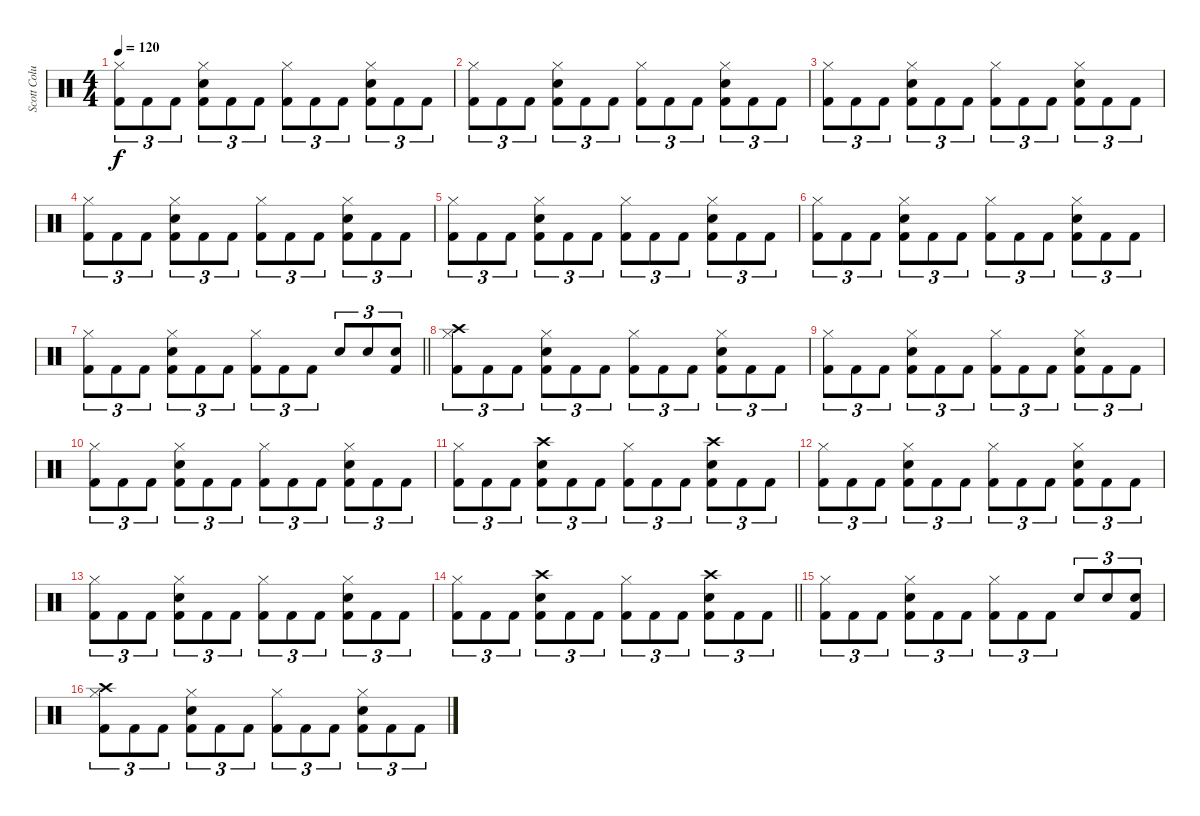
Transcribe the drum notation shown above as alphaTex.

\track ("Scott Columbus" "Scott Colu") {instrument percussion}
\staff {score}
\articulation defaults
\ts (4 4)
\tempo 120
\clef neutral
\ks c
("Hi-Hat (closed)" "Kick (hit) 2").8{tu (3 2) dy f} "Kick (hit) 2".8{tu (3 2)} "Kick (hit) 2".8{tu (3 2)} ("Hi-Hat (closed)" "Snare (hit) 2" "Kick (hit) 2").8{tu (3 2)} "Kick (hit) 2".8{tu (3 2)} "Kick (hit) 2".8{tu (3 2)} ("Hi-Hat (closed)" "Kick (hit) 2").8{tu (3 2)} "Kick (hit) 2".8{tu (3 2)} "Kick (hit) 2".8{tu (3 2)} ("Hi-Hat (closed)" "Snare (hit) 2" "Kick (hit) 2").8{tu (3 2)} "Kick (hit) 2".8{tu (3 2)} "Kick (hit) 2".8{tu (3 2)} |
("Hi-Hat (closed)" "Kick (hit) 2").8{tu (3 2)} "Kick (hit) 2".8{tu (3 2)} "Kick (hit) 2".8{tu (3 2)} ("Hi-Hat (closed)" "Snare (hit) 2" "Kick (hit) 2").8{tu (3 2)} "Kick (hit) 2".8{tu (3 2)} "Kick (hit) 2".8{tu (3 2)} ("Hi-Hat (closed)" "Kick (hit) 2").8{tu (3 2)} "Kick (hit) 2".8{tu (3 2)} "Kick (hit) 2".8{tu (3 2)} ("Hi-Hat (closed)" "Snare (hit) 2" "Kick (hit) 2").8{tu (3 2)} "Kick (hit) 2".8{tu (3 2)} "Kick (hit) 2".8{tu (3 2)} |
("Hi-Hat (closed)" "Kick (hit) 2").8{tu (3 2)} "Kick (hit) 2".8{tu (3 2)} "Kick (hit) 2".8{tu (3 2)} ("Hi-Hat (closed)" "Snare (hit) 2" "Kick (hit) 2").8{tu (3 2)} "Kick (hit) 2".8{tu (3 2)} "Kick (hit) 2".8{tu (3 2)} ("Hi-Hat (closed)" "Kick (hit) 2").8{tu (3 2)} "Kick (hit) 2".8{tu (3 2)} "Kick (hit) 2".8{tu (3 2)} ("Hi-Hat (closed)" "Snare (hit) 2" "Kick (hit) 2").8{tu (3 2)} "Kick (hit) 2".8{tu (3 2)} "Kick (hit) 2".8{tu (3 2)} |
("Hi-Hat (closed)" "Kick (hit) 2").8{tu (3 2)} "Kick (hit) 2".8{tu (3 2)} "Kick (hit) 2".8{tu (3 2)} ("Hi-Hat (closed)" "Snare (hit) 2" "Kick (hit) 2").8{tu (3 2)} "Kick (hit) 2".8{tu (3 2)} "Kick (hit) 2".8{tu (3 2)} ("Hi-Hat (closed)" "Kick (hit) 2").8{tu (3 2)} "Kick (hit) 2".8{tu (3 2)} "Kick (hit) 2".8{tu (3 2)} ("Hi-Hat (closed)" "Snare (hit) 2" "Kick (hit) 2").8{tu (3 2)} "Kick (hit) 2".8{tu (3 2)} "Kick (hit) 2".8{tu (3 2)} |
("Hi-Hat (closed)" "Kick (hit) 2").8{tu (3 2)} "Kick (hit) 2".8{tu (3 2)} "Kick (hit) 2".8{tu (3 2)} ("Hi-Hat (closed)" "Snare (hit) 2" "Kick (hit) 2").8{tu (3 2)} "Kick (hit) 2".8{tu (3 2)} "Kick (hit) 2".8{tu (3 2)} ("Hi-Hat (closed)" "Kick (hit) 2").8{tu (3 2)} "Kick (hit) 2".8{tu (3 2)} "Kick (hit) 2".8{tu (3 2)} ("Hi-Hat (closed)" "Snare (hit) 2" "Kick (hit) 2").8{tu (3 2)} "Kick (hit) 2".8{tu (3 2)} "Kick (hit) 2".8{tu (3 2)} |
("Hi-Hat (closed)" "Kick (hit) 2").8{tu (3 2)} "Kick (hit) 2".8{tu (3 2)} "Kick (hit) 2".8{tu (3 2)} ("Hi-Hat (closed)" "Snare (hit) 2" "Kick (hit) 2").8{tu (3 2)} "Kick (hit) 2".8{tu (3 2)} "Kick (hit) 2".8{tu (3 2)} ("Hi-Hat (closed)" "Kick (hit) 2").8{tu (3 2)} "Kick (hit) 2".8{tu (3 2)} "Kick (hit) 2".8{tu (3 2)} ("Hi-Hat (closed)" "Snare (hit) 2" "Kick (hit) 2").8{tu (3 2)} "Kick (hit) 2".8{tu (3 2)} "Kick (hit) 2".8{tu (3 2)} |
\barLineRight lightlight
("Hi-Hat (closed)" "Kick (hit) 2").8{tu (3 2)} "Kick (hit) 2".8{tu (3 2)} "Kick (hit) 2".8{tu (3 2)} ("Hi-Hat (closed)" "Snare (hit) 2" "Kick (hit) 2").8{tu (3 2)} "Kick (hit) 2".8{tu (3 2)} "Kick (hit) 2".8{tu (3 2)} ("Hi-Hat (closed)" "Kick (hit) 2").8{tu (3 2)} "Kick (hit) 2".8{tu (3 2)} "Kick (hit) 2".8{tu (3 2)} "Snare (hit) 2".8{tu (3 2)} "Snare (hit) 2".8{tu (3 2)} ("Snare (hit) 2" "Kick (hit) 2").8{tu (3 2)} |
("Crash high (hit)" "Hi-Hat (closed)" "Kick (hit) 2").8{tu (3 2)} "Kick (hit) 2".8{tu (3 2)} "Kick (hit) 2".8{tu (3 2)} ("Hi-Hat (closed)" "Snare (hit) 2" "Kick (hit) 2").8{tu (3 2)} "Kick (hit) 2".8{tu (3 2)} "Kick (hit) 2".8{tu (3 2)} ("Hi-Hat (closed)" "Kick (hit) 2").8{tu (3 2)} "Kick (hit) 2".8{tu (3 2)} "Kick (hit) 2".8{tu (3 2)} ("Hi-Hat (closed)" "Snare (hit) 2" "Kick (hit) 2").8{tu (3 2)} "Kick (hit) 2".8{tu (3 2)} "Kick (hit) 2".8{tu (3 2)} |
("Hi-Hat (closed)" "Kick (hit) 2").8{tu (3 2)} "Kick (hit) 2".8{tu (3 2)} "Kick (hit) 2".8{tu (3 2)} ("Hi-Hat (closed)" "Snare (hit) 2" "Kick (hit) 2").8{tu (3 2)} "Kick (hit) 2".8{tu (3 2)} "Kick (hit) 2".8{tu (3 2)} ("Hi-Hat (closed)" "Kick (hit) 2").8{tu (3 2)} "Kick (hit) 2".8{tu (3 2)} "Kick (hit) 2".8{tu (3 2)} ("Hi-Hat (closed)" "Snare (hit) 2" "Kick (hit) 2").8{tu (3 2)} "Kick (hit) 2".8{tu (3 2)} "Kick (hit) 2".8{tu (3 2)} |
("Hi-Hat (closed)" "Kick (hit) 2").8{tu (3 2)} "Kick (hit) 2".8{tu (3 2)} "Kick (hit) 2".8{tu (3 2)} ("Hi-Hat (closed)" "Snare (hit) 2" "Kick (hit) 2").8{tu (3 2)} "Kick (hit) 2".8{tu (3 2)} "Kick (hit) 2".8{tu (3 2)} ("Hi-Hat (closed)" "Kick (hit) 2").8{tu (3 2)} "Kick (hit) 2".8{tu (3 2)} "Kick (hit) 2".8{tu (3 2)} ("Hi-Hat (closed)" "Snare (hit) 2" "Kick (hit) 2").8{tu (3 2)} "Kick (hit) 2".8{tu (3 2)} "Kick (hit) 2".8{tu (3 2)} |
("Hi-Hat (closed)" "Kick (hit) 2").8{tu (3 2)} "Kick (hit) 2".8{tu (3 2)} "Kick (hit) 2".8{tu (3 2)} ("Crash high (hit)" "Snare (hit) 2" "Kick (hit) 2").8{tu (3 2)} "Kick (hit) 2".8{tu (3 2)} "Kick (hit) 2".8{tu (3 2)} ("Hi-Hat (closed)" "Kick (hit) 2").8{tu (3 2)} "Kick (hit) 2".8{tu (3 2)} "Kick (hit) 2".8{tu (3 2)} ("Crash high (hit)" "Snare (hit) 2" "Kick (hit) 2").8{tu (3 2)} "Kick (hit) 2".8{tu (3 2)} "Kick (hit) 2".8{tu (3 2)} |
("Hi-Hat (closed)" "Kick (hit) 2").8{tu (3 2)} "Kick (hit) 2".8{tu (3 2)} "Kick (hit) 2".8{tu (3 2)} ("Hi-Hat (closed)" "Snare (hit) 2" "Kick (hit) 2").8{tu (3 2)} "Kick (hit) 2".8{tu (3 2)} "Kick (hit) 2".8{tu (3 2)} ("Hi-Hat (closed)" "Kick (hit) 2").8{tu (3 2)} "Kick (hit) 2".8{tu (3 2)} "Kick (hit) 2".8{tu (3 2)} ("Hi-Hat (closed)" "Snare (hit) 2" "Kick (hit) 2").8{tu (3 2)} "Kick (hit) 2".8{tu (3 2)} "Kick (hit) 2".8{tu (3 2)} |
("Hi-Hat (closed)" "Kick (hit) 2").8{tu (3 2)} "Kick (hit) 2".8{tu (3 2)} "Kick (hit) 2".8{tu (3 2)} ("Hi-Hat (closed)" "Snare (hit) 2" "Kick (hit) 2").8{tu (3 2)} "Kick (hit) 2".8{tu (3 2)} "Kick (hit) 2".8{tu (3 2)} ("Hi-Hat (closed)" "Kick (hit) 2").8{tu (3 2)} "Kick (hit) 2".8{tu (3 2)} "Kick (hit) 2".8{tu (3 2)} ("Hi-Hat (closed)" "Snare (hit) 2" "Kick (hit) 2").8{tu (3 2)} "Kick (hit) 2".8{tu (3 2)} "Kick (hit) 2".8{tu (3 2)} |
\barLineRight lightlight
("Hi-Hat (closed)" "Kick (hit) 2").8{tu (3 2)} "Kick (hit) 2".8{tu (3 2)} "Kick (hit) 2".8{tu (3 2)} ("Crash high (hit)" "Snare (hit) 2" "Kick (hit) 2").8{tu (3 2)} "Kick (hit) 2".8{tu (3 2)} "Kick (hit) 2".8{tu (3 2)} ("Hi-Hat (closed)" "Kick (hit) 2").8{tu (3 2)} "Kick (hit) 2".8{tu (3 2)} "Kick (hit) 2".8{tu (3 2)} ("Crash high (hit)" "Snare (hit) 2" "Kick (hit) 2").8{tu (3 2)} "Kick (hit) 2".8{tu (3 2)} "Kick (hit) 2".8{tu (3 2)} |
("Hi-Hat (closed)" "Kick (hit) 2").8{tu (3 2)} "Kick (hit) 2".8{tu (3 2)} "Kick (hit) 2".8{tu (3 2)} ("Hi-Hat (closed)" "Snare (hit) 2" "Kick (hit) 2").8{tu (3 2)} "Kick (hit) 2".8{tu (3 2)} "Kick (hit) 2".8{tu (3 2)} ("Hi-Hat (closed)" "Kick (hit) 2").8{tu (3 2)} "Kick (hit) 2".8{tu (3 2)} "Kick (hit) 2".8{tu (3 2)} "Snare (hit) 2".8{tu (3 2)} "Snare (hit) 2".8{tu (3 2)} ("Snare (hit) 2" "Kick (hit) 2").8{tu (3 2)} |
("Crash high (hit)" "Hi-Hat (closed)" "Kick (hit) 2").8{tu (3 2)} "Kick (hit) 2".8{tu (3 2)} "Kick (hit) 2".8{tu (3 2)} ("Hi-Hat (closed)" "Snare (hit) 2" "Kick (hit) 2").8{tu (3 2)} "Kick (hit) 2".8{tu (3 2)} "Kick (hit) 2".8{tu (3 2)} ("Hi-Hat (closed)" "Kick (hit) 2").8{tu (3 2)} "Kick (hit) 2".8{tu (3 2)} "Kick (hit) 2".8{tu (3 2)} ("Hi-Hat (closed)" "Snare (hit) 2" "Kick (hit) 2").8{tu (3 2)} "Kick (hit) 2".8{tu (3 2)} "Kick (hit) 2".8{tu (3 2)}
